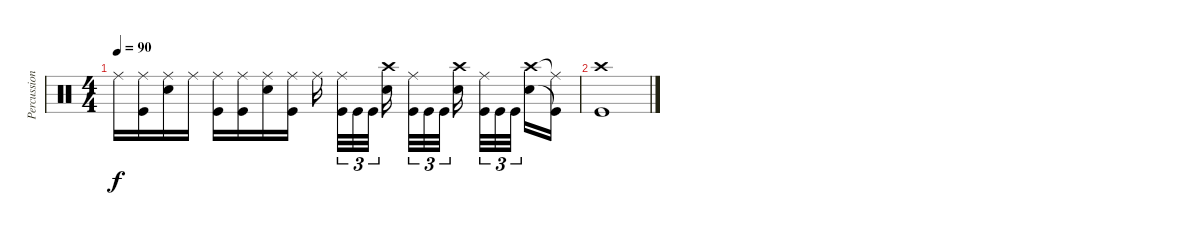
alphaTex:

\track ("Percussion" "Percussion") {instrument percussion}
\staff {score}
\articulation defaults
\ts (4 4)
\tempo 90
\clef neutral
\ks c "Ride (middle)".16{dy f}
("Ride (middle)" "Kick (hit)").16 ("Ride (middle)" "Electric Snare (hit)").16 "Ride (middle)".16 ("Ride (middle)" "Kick (hit)").16 ("Ride (middle)" "Kick (hit)").16 ("Ride (middle)" "Electric Snare (hit)").16 ("Ride (middle)" "Kick (hit)").16 "Ride (middle)".16 ("Ride (middle)" "Kick (hit)").32{tu (3 2)} "Kick (hit)".32{tu (3 2)} "Kick (hit)".32{tu (3 2)} ("Crash high (hit)" "Electric Snare (hit)").16 ("Ride (middle)" "Kick (hit)").32{tu (3 2)} "Kick (hit)".32{tu (3 2)} "Kick (hit)".32{tu (3 2)} ("Crash high (hit)" "Electric Snare (hit)").16 ("Ride (middle)" "Kick (hit)").32{tu (3 2)} "Kick (hit)".32{tu (3 2)} "Kick (hit)".32{tu (3 2)} ("Crash high (hit)" "Electric Snare (hit)").16 ("Ride (middle)"{t} "Kick (hit)"{t}).16 |
("Crash high (hit)" "Kick (hit)").1
